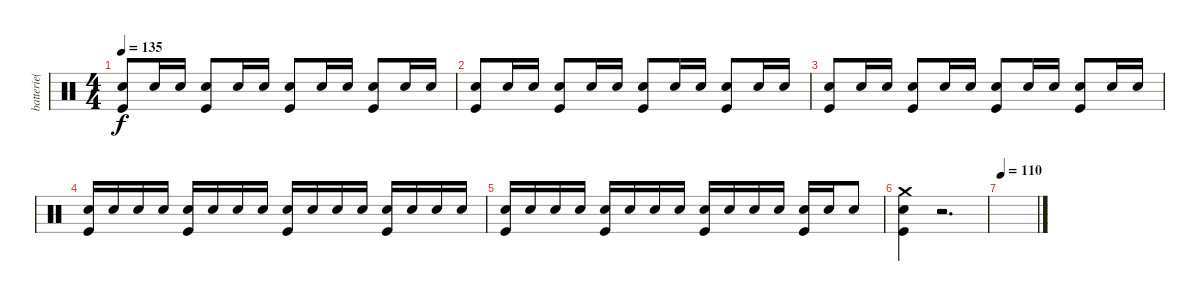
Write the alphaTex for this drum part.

\track ("batterie( Shane )" "batterie( ") {instrument percussion}
\staff {score}
\articulation defaults
\ts (4 4)
\tempo 135
\clef neutral
\ks c
("Snare (hit) 2" "Kick (hit)").8{dy f} "Snare (hit) 2".16 "Snare (hit) 2".16 ("Snare (hit) 2" "Kick (hit)").8 "Snare (hit) 2".16 "Snare (hit) 2".16 ("Snare (hit) 2" "Kick (hit)").8 "Snare (hit) 2".16 "Snare (hit) 2".16 ("Snare (hit) 2" "Kick (hit)").8 "Snare (hit) 2".16 "Snare (hit) 2".16 |
("Snare (hit) 2" "Kick (hit)").8 "Snare (hit) 2".16 "Snare (hit) 2".16 ("Snare (hit) 2" "Kick (hit)").8 "Snare (hit) 2".16 "Snare (hit) 2".16 ("Snare (hit) 2" "Kick (hit)").8 "Snare (hit) 2".16 "Snare (hit) 2".16 ("Snare (hit) 2" "Kick (hit)").8 "Snare (hit) 2".16 "Snare (hit) 2".16 |
("Snare (hit) 2" "Kick (hit)").8 "Snare (hit) 2".16 "Snare (hit) 2".16 ("Snare (hit) 2" "Kick (hit)").8 "Snare (hit) 2".16 "Snare (hit) 2".16 ("Snare (hit) 2" "Kick (hit)").8 "Snare (hit) 2".16 "Snare (hit) 2".16 ("Snare (hit) 2" "Kick (hit)").8 "Snare (hit) 2".16 "Snare (hit) 2".16 |
("Snare (hit) 2" "Kick (hit)").16 "Snare (hit) 2".16 "Snare (hit) 2".16 "Snare (hit) 2".16 ("Snare (hit) 2" "Kick (hit)").16 "Snare (hit) 2".16 "Snare (hit) 2".16 "Snare (hit) 2".16 ("Snare (hit) 2" "Kick (hit)").16 "Snare (hit) 2".16 "Snare (hit) 2".16 "Snare (hit) 2".16 ("Snare (hit) 2" "Kick (hit)").16 "Snare (hit) 2".16 "Snare (hit) 2".16 "Snare (hit) 2".16 |
("Snare (hit) 2" "Kick (hit)").16 "Snare (hit) 2".16 "Snare (hit) 2".16 "Snare (hit) 2".16 ("Snare (hit) 2" "Kick (hit)").16 "Snare (hit) 2".16 "Snare (hit) 2".16 "Snare (hit) 2".16 ("Snare (hit) 2" "Kick (hit)").16 "Snare (hit) 2".16 "Snare (hit) 2".16 "Snare (hit) 2".16 ("Snare (hit) 2" "Kick (hit)").16 "Snare (hit) 2".16 "Snare (hit) 2".8 |
("Crash medium (hit)" "Snare (hit) 2" "Kick (hit)").4 r.2{d} |
\tempo 110
